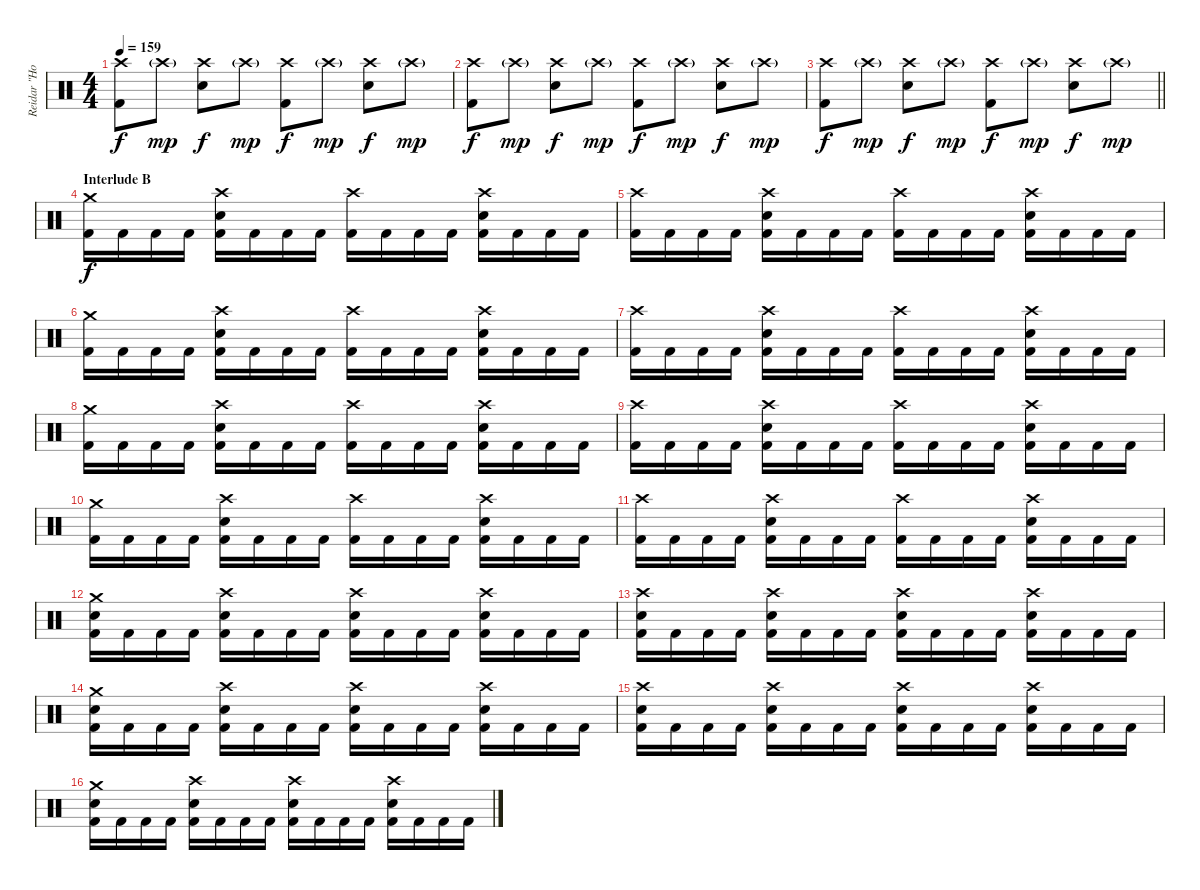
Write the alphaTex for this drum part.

\track ("Reidar \"Horgh\" Horghagen " "Reidar \"Ho") {instrument percussion}
\staff {score}
\articulation defaults
\ts (4 4)
\tempo 159
\clef neutral
\ks c
("Crash high (hit)" "Kick (hit) 2").8{dy f} "Crash high (hit)"{g}.8{dy mp} ("Crash high (hit)" "Snare (hit) 2").8{dy f} "Crash high (hit)"{g}.8{dy mp} ("Crash high (hit)" "Kick (hit) 2").8{dy f} "Crash high (hit)"{g}.8{dy mp} ("Crash high (hit)" "Snare (hit) 2").8{dy f} "Crash high (hit)"{g}.8{dy mp} |
("Crash high (hit)" "Kick (hit) 2").8{dy f} "Crash high (hit)"{g}.8{dy mp} ("Crash high (hit)" "Snare (hit) 2").8{dy f} "Crash high (hit)"{g}.8{dy mp} ("Crash high (hit)" "Kick (hit) 2").8{dy f} "Crash high (hit)"{g}.8{dy mp} ("Crash high (hit)" "Snare (hit) 2").8{dy f} "Crash high (hit)"{g}.8{dy mp} |
\barLineRight lightlight
("Crash high (hit)" "Kick (hit) 2").8{dy f} "Crash high (hit)"{g}.8{dy mp} ("Crash high (hit)" "Snare (hit) 2").8{dy f} "Crash high (hit)"{g}.8{dy mp} ("Crash high (hit)" "Kick (hit) 2").8{dy f} "Crash high (hit)"{g}.8{dy mp} ("Crash high (hit)" "Snare (hit) 2").8{dy f} "Crash high (hit)"{g}.8{dy mp} |
\section ("" "Interlude B")
("Crash medium (hit)" "Kick (hit) 2").16{dy f} "Kick (hit) 2".16 "Kick (hit) 2".16 "Kick (hit) 2".16 ("Crash high (hit)" "Snare (hit) 2" "Kick (hit) 2").16 "Kick (hit) 2".16 "Kick (hit) 2".16 "Kick (hit) 2".16 ("Crash high (hit)" "Kick (hit) 2").16 "Kick (hit) 2".16 "Kick (hit) 2".16 "Kick (hit) 2".16 ("Crash high (hit)" "Snare (hit) 2" "Kick (hit) 2").16 "Kick (hit) 2".16 "Kick (hit) 2".16 "Kick (hit) 2".16 |
("Crash high (hit)" "Kick (hit) 2").16 "Kick (hit) 2".16 "Kick (hit) 2".16 "Kick (hit) 2".16 ("Crash high (hit)" "Snare (hit) 2" "Kick (hit) 2").16 "Kick (hit) 2".16 "Kick (hit) 2".16 "Kick (hit) 2".16 ("Crash high (hit)" "Kick (hit) 2").16 "Kick (hit) 2".16 "Kick (hit) 2".16 "Kick (hit) 2".16 ("Crash high (hit)" "Snare (hit) 2" "Kick (hit) 2").16 "Kick (hit) 2".16 "Kick (hit) 2".16 "Kick (hit) 2".16 |
("Crash medium (hit)" "Kick (hit) 2").16 "Kick (hit) 2".16 "Kick (hit) 2".16 "Kick (hit) 2".16 ("Crash high (hit)" "Snare (hit) 2" "Kick (hit) 2").16 "Kick (hit) 2".16 "Kick (hit) 2".16 "Kick (hit) 2".16 ("Crash high (hit)" "Kick (hit) 2").16 "Kick (hit) 2".16 "Kick (hit) 2".16 "Kick (hit) 2".16 ("Crash high (hit)" "Snare (hit) 2" "Kick (hit) 2").16 "Kick (hit) 2".16 "Kick (hit) 2".16 "Kick (hit) 2".16 |
("Crash high (hit)" "Kick (hit) 2").16 "Kick (hit) 2".16 "Kick (hit) 2".16 "Kick (hit) 2".16 ("Crash high (hit)" "Snare (hit) 2" "Kick (hit) 2").16 "Kick (hit) 2".16 "Kick (hit) 2".16 "Kick (hit) 2".16 ("Crash high (hit)" "Kick (hit) 2").16 "Kick (hit) 2".16 "Kick (hit) 2".16 "Kick (hit) 2".16 ("Crash high (hit)" "Snare (hit) 2" "Kick (hit) 2").16 "Kick (hit) 2".16 "Kick (hit) 2".16 "Kick (hit) 2".16 |
("Crash medium (hit)" "Kick (hit) 2").16 "Kick (hit) 2".16 "Kick (hit) 2".16 "Kick (hit) 2".16 ("Crash high (hit)" "Snare (hit) 2" "Kick (hit) 2").16 "Kick (hit) 2".16 "Kick (hit) 2".16 "Kick (hit) 2".16 ("Crash high (hit)" "Kick (hit) 2").16 "Kick (hit) 2".16 "Kick (hit) 2".16 "Kick (hit) 2".16 ("Crash high (hit)" "Snare (hit) 2" "Kick (hit) 2").16 "Kick (hit) 2".16 "Kick (hit) 2".16 "Kick (hit) 2".16 |
("Crash high (hit)" "Kick (hit) 2").16 "Kick (hit) 2".16 "Kick (hit) 2".16 "Kick (hit) 2".16 ("Crash high (hit)" "Snare (hit) 2" "Kick (hit) 2").16 "Kick (hit) 2".16 "Kick (hit) 2".16 "Kick (hit) 2".16 ("Crash high (hit)" "Kick (hit) 2").16 "Kick (hit) 2".16 "Kick (hit) 2".16 "Kick (hit) 2".16 ("Crash high (hit)" "Snare (hit) 2" "Kick (hit) 2").16 "Kick (hit) 2".16 "Kick (hit) 2".16 "Kick (hit) 2".16 |
("Crash medium (hit)" "Kick (hit) 2").16 "Kick (hit) 2".16 "Kick (hit) 2".16 "Kick (hit) 2".16 ("Crash high (hit)" "Snare (hit) 2" "Kick (hit) 2").16 "Kick (hit) 2".16 "Kick (hit) 2".16 "Kick (hit) 2".16 ("Crash high (hit)" "Kick (hit) 2").16 "Kick (hit) 2".16 "Kick (hit) 2".16 "Kick (hit) 2".16 ("Crash high (hit)" "Snare (hit) 2" "Kick (hit) 2").16 "Kick (hit) 2".16 "Kick (hit) 2".16 "Kick (hit) 2".16 |
("Crash high (hit)" "Kick (hit) 2").16 "Kick (hit) 2".16 "Kick (hit) 2".16 "Kick (hit) 2".16 ("Crash high (hit)" "Snare (hit) 2" "Kick (hit) 2").16 "Kick (hit) 2".16 "Kick (hit) 2".16 "Kick (hit) 2".16 ("Crash high (hit)" "Kick (hit) 2").16 "Kick (hit) 2".16 "Kick (hit) 2".16 "Kick (hit) 2".16 ("Crash high (hit)" "Snare (hit) 2" "Kick (hit) 2").16 "Kick (hit) 2".16 "Kick (hit) 2".16 "Kick (hit) 2".16 |
("Crash medium (hit)" "Snare (hit) 2" "Kick (hit) 2").16 "Kick (hit) 2".16 "Kick (hit) 2".16 "Kick (hit) 2".16 ("Crash high (hit)" "Snare (hit) 2" "Kick (hit) 2").16 "Kick (hit) 2".16 "Kick (hit) 2".16 "Kick (hit) 2".16 ("Crash high (hit)" "Snare (hit) 2" "Kick (hit) 2").16 "Kick (hit) 2".16 "Kick (hit) 2".16 "Kick (hit) 2".16 ("Crash high (hit)" "Snare (hit) 2" "Kick (hit) 2").16 "Kick (hit) 2".16 "Kick (hit) 2".16 "Kick (hit) 2".16 |
("Crash high (hit)" "Snare (hit) 2" "Kick (hit) 2").16 "Kick (hit) 2".16 "Kick (hit) 2".16 "Kick (hit) 2".16 ("Crash high (hit)" "Snare (hit) 2" "Kick (hit) 2").16 "Kick (hit) 2".16 "Kick (hit) 2".16 "Kick (hit) 2".16 ("Crash high (hit)" "Snare (hit) 2" "Kick (hit) 2").16 "Kick (hit) 2".16 "Kick (hit) 2".16 "Kick (hit) 2".16 ("Crash high (hit)" "Snare (hit) 2" "Kick (hit) 2").16 "Kick (hit) 2".16 "Kick (hit) 2".16 "Kick (hit) 2".16 |
("Crash medium (hit)" "Snare (hit) 2" "Kick (hit) 2").16 "Kick (hit) 2".16 "Kick (hit) 2".16 "Kick (hit) 2".16 ("Crash high (hit)" "Snare (hit) 2" "Kick (hit) 2").16 "Kick (hit) 2".16 "Kick (hit) 2".16 "Kick (hit) 2".16 ("Crash high (hit)" "Snare (hit) 2" "Kick (hit) 2").16 "Kick (hit) 2".16 "Kick (hit) 2".16 "Kick (hit) 2".16 ("Crash high (hit)" "Snare (hit) 2" "Kick (hit) 2").16 "Kick (hit) 2".16 "Kick (hit) 2".16 "Kick (hit) 2".16 |
("Crash high (hit)" "Snare (hit) 2" "Kick (hit) 2").16 "Kick (hit) 2".16 "Kick (hit) 2".16 "Kick (hit) 2".16 ("Crash high (hit)" "Snare (hit) 2" "Kick (hit) 2").16 "Kick (hit) 2".16 "Kick (hit) 2".16 "Kick (hit) 2".16 ("Crash high (hit)" "Snare (hit) 2" "Kick (hit) 2").16 "Kick (hit) 2".16 "Kick (hit) 2".16 "Kick (hit) 2".16 ("Crash high (hit)" "Snare (hit) 2" "Kick (hit) 2").16 "Kick (hit) 2".16 "Kick (hit) 2".16 "Kick (hit) 2".16 |
("Crash medium (hit)" "Snare (hit) 2" "Kick (hit) 2").16 "Kick (hit) 2".16 "Kick (hit) 2".16 "Kick (hit) 2".16 ("Crash high (hit)" "Snare (hit) 2" "Kick (hit) 2").16 "Kick (hit) 2".16 "Kick (hit) 2".16 "Kick (hit) 2".16 ("Crash high (hit)" "Snare (hit) 2" "Kick (hit) 2").16 "Kick (hit) 2".16 "Kick (hit) 2".16 "Kick (hit) 2".16 ("Crash high (hit)" "Snare (hit) 2" "Kick (hit) 2").16 "Kick (hit) 2".16 "Kick (hit) 2".16 "Kick (hit) 2".16
